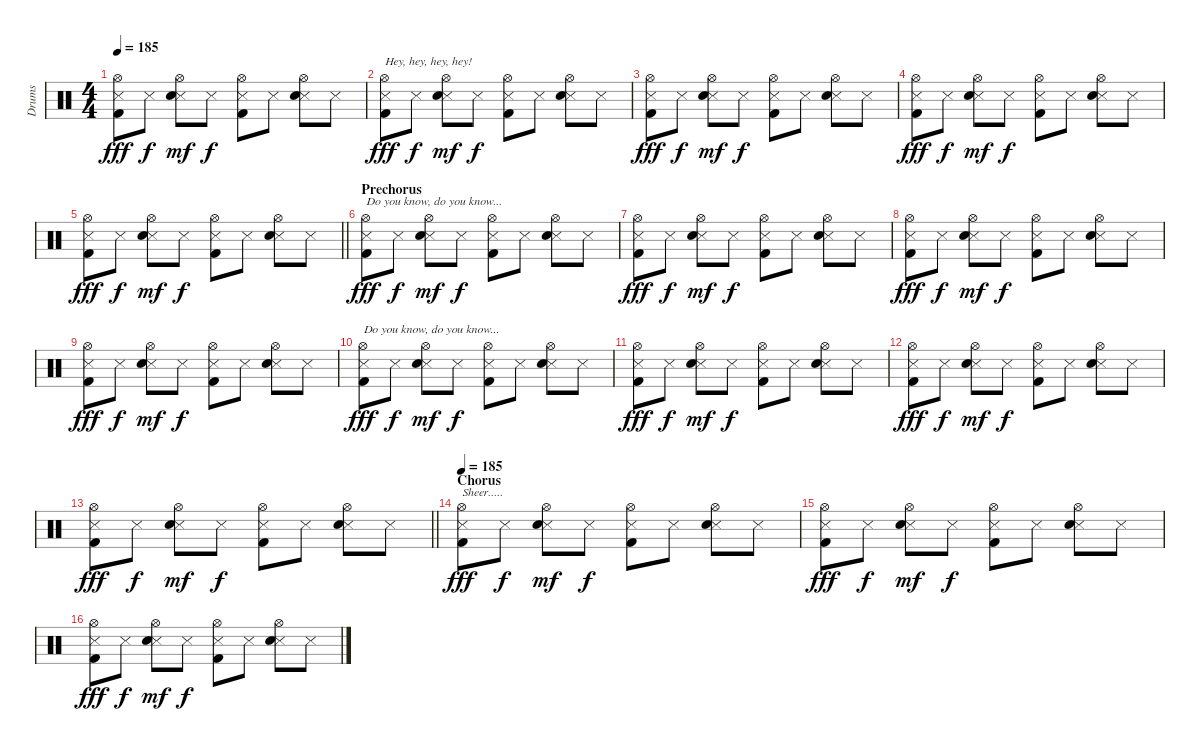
\track ("Drums" "Drums") {instrument percussion}
\staff {score}
\articulation defaults
\ts (4 4)
\tempo 185
\clef neutral
\ks c
("Hi-Hat (open)" "Metronome (hit)" "Kick (hit) 2").8{dy fff} "Metronome (hit)".8{dy f} ("Hi-Hat (open)" "Metronome (hit)" "Snare (hit) 2").8{dy mf} "Metronome (hit)".8{dy f} ("Hi-Hat (open)" "Metronome (hit)" "Kick (hit) 2").8 "Metronome (hit)".8 ("Hi-Hat (open)" "Metronome (hit)" "Snare (hit) 2").8 "Metronome (hit)".8 |
("Hi-Hat (open)" "Metronome (hit)" "Kick (hit) 2").8{txt "Hey, hey, hey, hey!" dy fff} "Metronome (hit)".8{dy f} ("Hi-Hat (open)" "Metronome (hit)" "Snare (hit) 2").8{dy mf} "Metronome (hit)".8{dy f} ("Hi-Hat (open)" "Metronome (hit)" "Kick (hit) 2").8 "Metronome (hit)".8 ("Hi-Hat (open)" "Metronome (hit)" "Snare (hit) 2").8 "Metronome (hit)".8 |
("Hi-Hat (open)" "Metronome (hit)" "Kick (hit) 2").8{dy fff} "Metronome (hit)".8{dy f} ("Hi-Hat (open)" "Metronome (hit)" "Snare (hit) 2").8{dy mf} "Metronome (hit)".8{dy f} ("Hi-Hat (open)" "Metronome (hit)" "Kick (hit) 2").8 "Metronome (hit)".8 ("Hi-Hat (open)" "Metronome (hit)" "Snare (hit) 2").8 "Metronome (hit)".8 |
("Hi-Hat (open)" "Metronome (hit)" "Kick (hit) 2").8{dy fff} "Metronome (hit)".8{dy f} ("Hi-Hat (open)" "Metronome (hit)" "Snare (hit) 2").8{dy mf} "Metronome (hit)".8{dy f} ("Hi-Hat (open)" "Metronome (hit)" "Kick (hit) 2").8 "Metronome (hit)".8 ("Hi-Hat (open)" "Metronome (hit)" "Snare (hit) 2").8 "Metronome (hit)".8 |
\barLineRight lightlight
("Hi-Hat (open)" "Metronome (hit)" "Kick (hit) 2").8{dy fff} "Metronome (hit)".8{dy f} ("Hi-Hat (open)" "Metronome (hit)" "Snare (hit) 2").8{dy mf} "Metronome (hit)".8{dy f} ("Hi-Hat (open)" "Metronome (hit)" "Kick (hit) 2").8 "Metronome (hit)".8 ("Hi-Hat (open)" "Metronome (hit)" "Snare (hit) 2").8 "Metronome (hit)".8 |
\section ("" "Prechorus")
("Hi-Hat (open)" "Metronome (hit)" "Kick (hit) 2").8{txt "Do you know, do you know..." dy fff} "Metronome (hit)".8{dy f} ("Hi-Hat (open)" "Metronome (hit)" "Snare (hit) 2").8{dy mf} "Metronome (hit)".8{dy f} ("Hi-Hat (open)" "Metronome (hit)" "Kick (hit) 2").8 "Metronome (hit)".8 ("Hi-Hat (open)" "Metronome (hit)" "Snare (hit) 2").8 "Metronome (hit)".8 |
("Hi-Hat (open)" "Metronome (hit)" "Kick (hit) 2").8{dy fff} "Metronome (hit)".8{dy f} ("Hi-Hat (open)" "Metronome (hit)" "Snare (hit) 2").8{dy mf} "Metronome (hit)".8{dy f} ("Hi-Hat (open)" "Metronome (hit)" "Kick (hit) 2").8 "Metronome (hit)".8 ("Hi-Hat (open)" "Metronome (hit)" "Snare (hit) 2").8 "Metronome (hit)".8 |
("Hi-Hat (open)" "Metronome (hit)" "Kick (hit) 2").8{dy fff} "Metronome (hit)".8{dy f} ("Hi-Hat (open)" "Metronome (hit)" "Snare (hit) 2").8{dy mf} "Metronome (hit)".8{dy f} ("Hi-Hat (open)" "Metronome (hit)" "Kick (hit) 2").8 "Metronome (hit)".8 ("Hi-Hat (open)" "Metronome (hit)" "Snare (hit) 2").8 "Metronome (hit)".8 |
("Hi-Hat (open)" "Metronome (hit)" "Kick (hit) 2").8{dy fff} "Metronome (hit)".8{dy f} ("Hi-Hat (open)" "Metronome (hit)" "Snare (hit) 2").8{dy mf} "Metronome (hit)".8{dy f} ("Hi-Hat (open)" "Metronome (hit)" "Kick (hit) 2").8 "Metronome (hit)".8 ("Hi-Hat (open)" "Metronome (hit)" "Snare (hit) 2").8 "Metronome (hit)".8 |
("Hi-Hat (open)" "Metronome (hit)" "Kick (hit) 2").8{txt "Do you know, do you know..." dy fff} "Metronome (hit)".8{dy f} ("Hi-Hat (open)" "Metronome (hit)" "Snare (hit) 2").8{dy mf} "Metronome (hit)".8{dy f} ("Hi-Hat (open)" "Metronome (hit)" "Kick (hit) 2").8 "Metronome (hit)".8 ("Hi-Hat (open)" "Metronome (hit)" "Snare (hit) 2").8 "Metronome (hit)".8 |
("Hi-Hat (open)" "Metronome (hit)" "Kick (hit) 2").8{dy fff} "Metronome (hit)".8{dy f} ("Hi-Hat (open)" "Metronome (hit)" "Snare (hit) 2").8{dy mf} "Metronome (hit)".8{dy f} ("Hi-Hat (open)" "Metronome (hit)" "Kick (hit) 2").8 "Metronome (hit)".8 ("Hi-Hat (open)" "Metronome (hit)" "Snare (hit) 2").8 "Metronome (hit)".8 |
("Hi-Hat (open)" "Metronome (hit)" "Kick (hit) 2").8{dy fff} "Metronome (hit)".8{dy f} ("Hi-Hat (open)" "Metronome (hit)" "Snare (hit) 2").8{dy mf} "Metronome (hit)".8{dy f} ("Hi-Hat (open)" "Metronome (hit)" "Kick (hit) 2").8 "Metronome (hit)".8 ("Hi-Hat (open)" "Metronome (hit)" "Snare (hit) 2").8 "Metronome (hit)".8 |
\barLineRight lightlight
("Hi-Hat (open)" "Metronome (hit)" "Kick (hit) 2").8{dy fff} "Metronome (hit)".8{dy f} ("Hi-Hat (open)" "Metronome (hit)" "Snare (hit) 2").8{dy mf} "Metronome (hit)".8{dy f} ("Hi-Hat (open)" "Metronome (hit)" "Kick (hit) 2").8 "Metronome (hit)".8 ("Hi-Hat (open)" "Metronome (hit)" "Snare (hit) 2").8 "Metronome (hit)".8 |
\section ("" "Chorus")
\tempo 185
("Hi-Hat (open)" "Metronome (hit)" "Kick (hit) 2").8{txt "Sheer....." dy fff} "Metronome (hit)".8{dy f} ("Hi-Hat (open)" "Metronome (hit)" "Snare (hit) 2").8{dy mf} "Metronome (hit)".8{dy f} ("Hi-Hat (open)" "Metronome (hit)" "Kick (hit) 2").8 "Metronome (hit)".8 ("Hi-Hat (open)" "Metronome (hit)" "Snare (hit) 2").8 "Metronome (hit)".8 |
("Hi-Hat (open)" "Metronome (hit)" "Kick (hit) 2").8{dy fff} "Metronome (hit)".8{dy f} ("Hi-Hat (open)" "Metronome (hit)" "Snare (hit) 2").8{dy mf} "Metronome (hit)".8{dy f} ("Hi-Hat (open)" "Metronome (hit)" "Kick (hit) 2").8 "Metronome (hit)".8 ("Hi-Hat (open)" "Metronome (hit)" "Snare (hit) 2").8 "Metronome (hit)".8 |
("Hi-Hat (open)" "Metronome (hit)" "Kick (hit) 2").8{dy fff} "Metronome (hit)".8{dy f} ("Hi-Hat (open)" "Metronome (hit)" "Snare (hit) 2").8{dy mf} "Metronome (hit)".8{dy f} ("Hi-Hat (open)" "Metronome (hit)" "Kick (hit) 2").8 "Metronome (hit)".8 ("Hi-Hat (open)" "Metronome (hit)" "Snare (hit) 2").8 "Metronome (hit)".8
